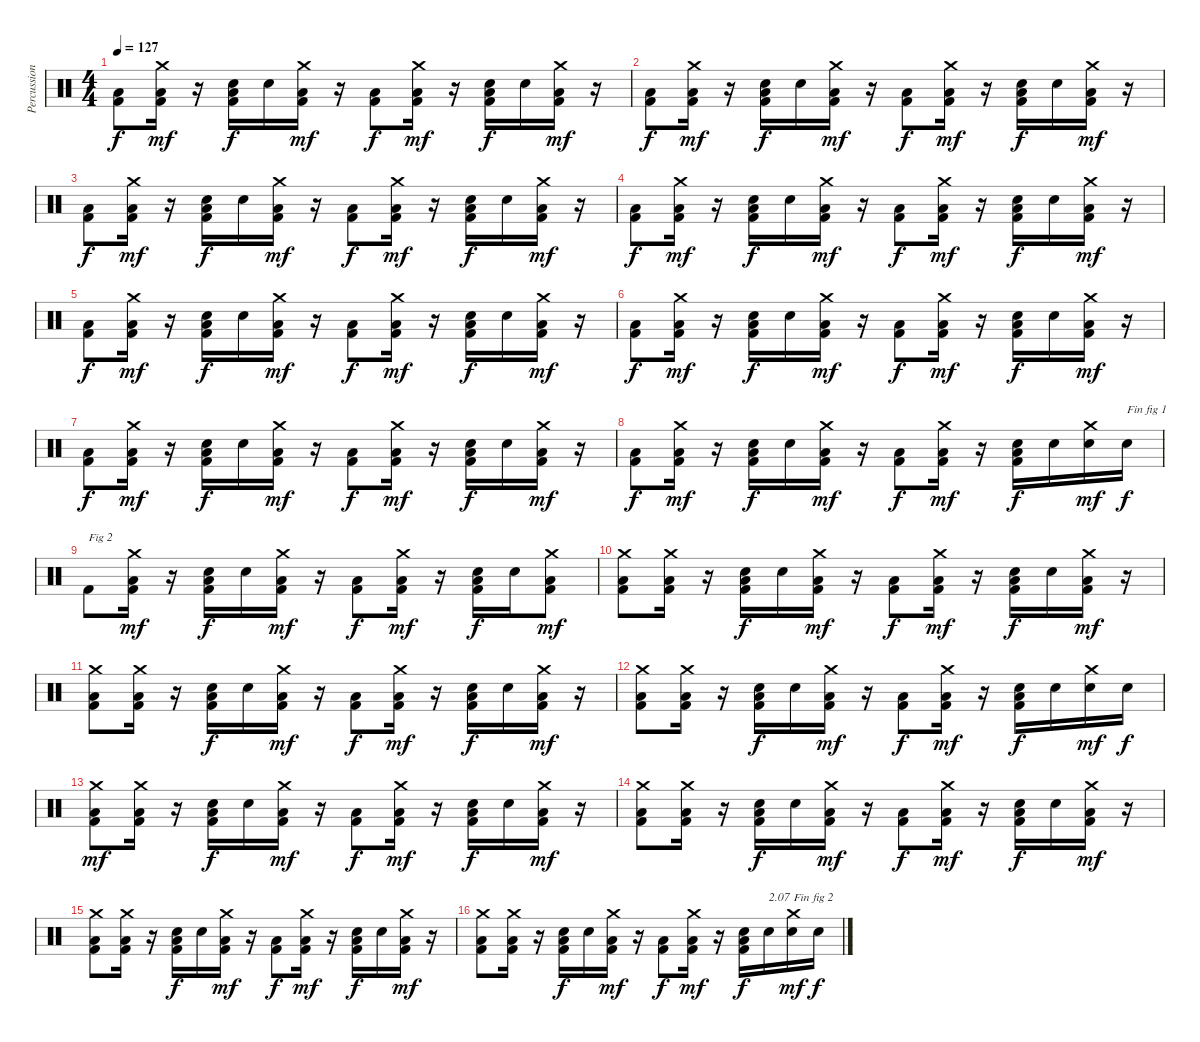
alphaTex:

\track ("Percussions" "Percussion") {instrument percussion}
\staff {score}
\articulation defaults
\ts (4 4)
\tempo 127
\clef neutral
\ks c
("Low Floor Tom (hit)" "Kick (hit) 2").8{dy f} ("Low Floor Tom (hit)" "Kick (hit) 2" "Crash medium (hit)").16{dy mf} r.16 ("Low Floor Tom (hit)" "Kick (hit) 2" "Electric Snare (hit)").16{dy f} "Electric Snare (hit)".16 ("Low Floor Tom (hit)" "Kick (hit) 2" "Crash medium (hit)").16{dy mf} r.16 ("Low Floor Tom (hit)" "Kick (hit) 2").8{dy f} ("Low Floor Tom (hit)" "Kick (hit) 2" "Crash medium (hit)").16{dy mf} r.16 ("Low Floor Tom (hit)" "Kick (hit) 2" "Electric Snare (hit)").16{dy f} "Electric Snare (hit)".16 ("Low Floor Tom (hit)" "Kick (hit) 2" "Crash medium (hit)").16{dy mf} r.16 |
("Low Floor Tom (hit)" "Kick (hit) 2").8{dy f} ("Low Floor Tom (hit)" "Kick (hit) 2" "Crash medium (hit)").16{dy mf} r.16 ("Low Floor Tom (hit)" "Kick (hit) 2" "Electric Snare (hit)").16{dy f} "Electric Snare (hit)".16 ("Low Floor Tom (hit)" "Kick (hit) 2" "Crash medium (hit)").16{dy mf} r.16 ("Low Floor Tom (hit)" "Kick (hit) 2").8{dy f} ("Low Floor Tom (hit)" "Kick (hit) 2" "Crash medium (hit)").16{dy mf} r.16 ("Low Floor Tom (hit)" "Kick (hit) 2" "Electric Snare (hit)").16{dy f} "Electric Snare (hit)".16 ("Low Floor Tom (hit)" "Kick (hit) 2" "Crash medium (hit)").16{dy mf} r.16 |
("Low Floor Tom (hit)" "Kick (hit) 2").8{dy f} ("Low Floor Tom (hit)" "Kick (hit) 2" "Crash medium (hit)").16{dy mf} r.16 ("Low Floor Tom (hit)" "Kick (hit) 2" "Electric Snare (hit)").16{dy f} "Electric Snare (hit)".16 ("Low Floor Tom (hit)" "Kick (hit) 2" "Crash medium (hit)").16{dy mf} r.16 ("Low Floor Tom (hit)" "Kick (hit) 2").8{dy f} ("Low Floor Tom (hit)" "Kick (hit) 2" "Crash medium (hit)").16{dy mf} r.16 ("Low Floor Tom (hit)" "Kick (hit) 2" "Electric Snare (hit)").16{dy f} "Electric Snare (hit)".16 ("Low Floor Tom (hit)" "Kick (hit) 2" "Crash medium (hit)").16{dy mf} r.16 |
("Low Floor Tom (hit)" "Kick (hit) 2").8{dy f} ("Low Floor Tom (hit)" "Kick (hit) 2" "Crash medium (hit)").16{dy mf} r.16 ("Low Floor Tom (hit)" "Kick (hit) 2" "Electric Snare (hit)").16{dy f} "Electric Snare (hit)".16 ("Low Floor Tom (hit)" "Kick (hit) 2" "Crash medium (hit)").16{dy mf} r.16 ("Low Floor Tom (hit)" "Kick (hit) 2").8{dy f} ("Low Floor Tom (hit)" "Kick (hit) 2" "Crash medium (hit)").16{dy mf} r.16 ("Low Floor Tom (hit)" "Kick (hit) 2" "Electric Snare (hit)").16{dy f} "Electric Snare (hit)".16 ("Low Floor Tom (hit)" "Kick (hit) 2" "Crash medium (hit)").16{dy mf} r.16 |
("Low Floor Tom (hit)" "Kick (hit) 2").8{dy f} ("Low Floor Tom (hit)" "Kick (hit) 2" "Crash medium (hit)").16{dy mf} r.16 ("Low Floor Tom (hit)" "Kick (hit) 2" "Electric Snare (hit)").16{dy f} "Electric Snare (hit)".16 ("Low Floor Tom (hit)" "Kick (hit) 2" "Crash medium (hit)").16{dy mf} r.16 ("Low Floor Tom (hit)" "Kick (hit) 2").8{dy f} ("Low Floor Tom (hit)" "Kick (hit) 2" "Crash medium (hit)").16{dy mf} r.16 ("Low Floor Tom (hit)" "Kick (hit) 2" "Electric Snare (hit)").16{dy f} "Electric Snare (hit)".16 ("Low Floor Tom (hit)" "Kick (hit) 2" "Crash medium (hit)").16{dy mf} r.16 |
("Low Floor Tom (hit)" "Kick (hit) 2").8{dy f} ("Low Floor Tom (hit)" "Kick (hit) 2" "Crash medium (hit)").16{dy mf} r.16 ("Low Floor Tom (hit)" "Kick (hit) 2" "Electric Snare (hit)").16{dy f} "Electric Snare (hit)".16 ("Low Floor Tom (hit)" "Kick (hit) 2" "Crash medium (hit)").16{dy mf} r.16 ("Low Floor Tom (hit)" "Kick (hit) 2").8{dy f} ("Low Floor Tom (hit)" "Kick (hit) 2" "Crash medium (hit)").16{dy mf} r.16 ("Low Floor Tom (hit)" "Kick (hit) 2" "Electric Snare (hit)").16{dy f} "Electric Snare (hit)".16 ("Low Floor Tom (hit)" "Kick (hit) 2" "Crash medium (hit)").16{dy mf} r.16 |
("Low Floor Tom (hit)" "Kick (hit) 2").8{dy f} ("Low Floor Tom (hit)" "Kick (hit) 2" "Crash medium (hit)").16{dy mf} r.16 ("Low Floor Tom (hit)" "Kick (hit) 2" "Electric Snare (hit)").16{dy f} "Electric Snare (hit)".16 ("Low Floor Tom (hit)" "Kick (hit) 2" "Crash medium (hit)").16{dy mf} r.16 ("Low Floor Tom (hit)" "Kick (hit) 2").8{dy f} ("Low Floor Tom (hit)" "Kick (hit) 2" "Crash medium (hit)").16{dy mf} r.16 ("Low Floor Tom (hit)" "Kick (hit) 2" "Electric Snare (hit)").16{dy f} "Electric Snare (hit)".16 ("Low Floor Tom (hit)" "Kick (hit) 2" "Crash medium (hit)").16{dy mf} r.16 |
("Low Floor Tom (hit)" "Kick (hit) 2").8{dy f} ("Low Floor Tom (hit)" "Kick (hit) 2" "Crash medium (hit)").16{dy mf} r.16 ("Low Floor Tom (hit)" "Kick (hit) 2" "Electric Snare (hit)").16{dy f} "Electric Snare (hit)".16 ("Low Floor Tom (hit)" "Kick (hit) 2" "Crash medium (hit)").16{dy mf} r.16 ("Low Floor Tom (hit)" "Kick (hit) 2").8{dy f} ("Low Floor Tom (hit)" "Kick (hit) 2" "Crash medium (hit)").16{dy mf} r.16 ("Low Floor Tom (hit)" "Kick (hit) 2" "Electric Snare (hit)").16{dy f} "Electric Snare (hit)".16 ("Electric Snare (hit)" "Crash medium (hit)").16{dy mf} "Electric Snare (hit)".16{txt "Fin fig 1" dy f} |
"Kick (hit) 2".8{txt "Fig 2"} ("Low Floor Tom (hit)" "Kick (hit) 2" "Crash medium (hit)").16{dy mf} r.16 ("Low Floor Tom (hit)" "Kick (hit) 2" "Electric Snare (hit)").16{dy f} "Electric Snare (hit)".16 ("Low Floor Tom (hit)" "Kick (hit) 2" "Crash medium (hit)").16{dy mf} r.16 ("Low Floor Tom (hit)" "Kick (hit) 2").8{dy f} ("Low Floor Tom (hit)" "Kick (hit) 2" "Crash medium (hit)").16{dy mf} r.16 ("Low Floor Tom (hit)" "Kick (hit) 2" "Electric Snare (hit)").16{dy f} "Electric Snare (hit)".16 ("Low Floor Tom (hit)" "Kick (hit) 2" "Crash medium (hit)").8{dy mf} |
("Low Floor Tom (hit)" "Kick (hit) 2" "Crash medium (hit)").8 ("Low Floor Tom (hit)" "Kick (hit) 2" "Crash medium (hit)").16 r.16 ("Low Floor Tom (hit)" "Kick (hit) 2" "Electric Snare (hit)").16{dy f} "Electric Snare (hit)".16 ("Low Floor Tom (hit)" "Kick (hit) 2" "Crash medium (hit)").16{dy mf} r.16 ("Low Floor Tom (hit)" "Kick (hit) 2").8{dy f} ("Low Floor Tom (hit)" "Kick (hit) 2" "Crash medium (hit)").16{dy mf} r.16 ("Low Floor Tom (hit)" "Kick (hit) 2" "Electric Snare (hit)").16{dy f} "Electric Snare (hit)".16 ("Low Floor Tom (hit)" "Kick (hit) 2" "Crash medium (hit)").16{dy mf} r.16 |
("Low Floor Tom (hit)" "Kick (hit) 2" "Crash medium (hit)").8 ("Low Floor Tom (hit)" "Kick (hit) 2" "Crash medium (hit)").16 r.16 ("Low Floor Tom (hit)" "Kick (hit) 2" "Electric Snare (hit)").16{dy f} "Electric Snare (hit)".16 ("Low Floor Tom (hit)" "Kick (hit) 2" "Crash medium (hit)").16{dy mf} r.16 ("Low Floor Tom (hit)" "Kick (hit) 2").8{dy f} ("Low Floor Tom (hit)" "Kick (hit) 2" "Crash medium (hit)").16{dy mf} r.16 ("Low Floor Tom (hit)" "Kick (hit) 2" "Electric Snare (hit)").16{dy f} "Electric Snare (hit)".16 ("Low Floor Tom (hit)" "Kick (hit) 2" "Crash medium (hit)").16{dy mf} r.16 |
("Low Floor Tom (hit)" "Kick (hit) 2" "Crash medium (hit)").8 ("Low Floor Tom (hit)" "Kick (hit) 2" "Crash medium (hit)").16 r.16 ("Low Floor Tom (hit)" "Kick (hit) 2" "Electric Snare (hit)").16{dy f} "Electric Snare (hit)".16 ("Low Floor Tom (hit)" "Kick (hit) 2" "Crash medium (hit)").16{dy mf} r.16 ("Low Floor Tom (hit)" "Kick (hit) 2").8{dy f} ("Low Floor Tom (hit)" "Kick (hit) 2" "Crash medium (hit)").16{dy mf} r.16 ("Low Floor Tom (hit)" "Kick (hit) 2" "Electric Snare (hit)").16{dy f} "Electric Snare (hit)".16 ("Electric Snare (hit)" "Crash medium (hit)").16{dy mf} "Electric Snare (hit)".16{dy f} |
("Low Floor Tom (hit)" "Kick (hit) 2" "Crash medium (hit)").8{dy mf} ("Low Floor Tom (hit)" "Kick (hit) 2" "Crash medium (hit)").16 r.16 ("Low Floor Tom (hit)" "Kick (hit) 2" "Electric Snare (hit)").16{dy f} "Electric Snare (hit)".16 ("Low Floor Tom (hit)" "Kick (hit) 2" "Crash medium (hit)").16{dy mf} r.16 ("Low Floor Tom (hit)" "Kick (hit) 2").8{dy f} ("Low Floor Tom (hit)" "Kick (hit) 2" "Crash medium (hit)").16{dy mf} r.16 ("Low Floor Tom (hit)" "Kick (hit) 2" "Electric Snare (hit)").16{dy f} "Electric Snare (hit)".16 ("Low Floor Tom (hit)" "Kick (hit) 2" "Crash medium (hit)").16{dy mf} r.16 |
("Low Floor Tom (hit)" "Kick (hit) 2" "Crash medium (hit)").8 ("Low Floor Tom (hit)" "Kick (hit) 2" "Crash medium (hit)").16 r.16 ("Low Floor Tom (hit)" "Kick (hit) 2" "Electric Snare (hit)").16{dy f} "Electric Snare (hit)".16 ("Low Floor Tom (hit)" "Kick (hit) 2" "Crash medium (hit)").16{dy mf} r.16 ("Low Floor Tom (hit)" "Kick (hit) 2").8{dy f} ("Low Floor Tom (hit)" "Kick (hit) 2" "Crash medium (hit)").16{dy mf} r.16 ("Low Floor Tom (hit)" "Kick (hit) 2" "Electric Snare (hit)").16{dy f} "Electric Snare (hit)".16 ("Low Floor Tom (hit)" "Kick (hit) 2" "Crash medium (hit)").16{dy mf} r.16 |
("Low Floor Tom (hit)" "Kick (hit) 2" "Crash medium (hit)").8 ("Low Floor Tom (hit)" "Kick (hit) 2" "Crash medium (hit)").16 r.16 ("Low Floor Tom (hit)" "Kick (hit) 2" "Electric Snare (hit)").16{dy f} "Electric Snare (hit)".16 ("Low Floor Tom (hit)" "Kick (hit) 2" "Crash medium (hit)").16{dy mf} r.16 ("Low Floor Tom (hit)" "Kick (hit) 2").8{dy f} ("Low Floor Tom (hit)" "Kick (hit) 2" "Crash medium (hit)").16{dy mf} r.16 ("Low Floor Tom (hit)" "Kick (hit) 2" "Electric Snare (hit)").16{dy f} "Electric Snare (hit)".16 ("Low Floor Tom (hit)" "Kick (hit) 2" "Crash medium (hit)").16{dy mf} r.16 |
("Low Floor Tom (hit)" "Kick (hit) 2" "Crash medium (hit)").8 ("Low Floor Tom (hit)" "Kick (hit) 2" "Crash medium (hit)").16 r.16 ("Low Floor Tom (hit)" "Kick (hit) 2" "Electric Snare (hit)").16{dy f} "Electric Snare (hit)".16 ("Low Floor Tom (hit)" "Kick (hit) 2" "Crash medium (hit)").16{dy mf} r.16 ("Low Floor Tom (hit)" "Kick (hit) 2").8{dy f} ("Low Floor Tom (hit)" "Kick (hit) 2" "Crash medium (hit)").16{dy mf} r.16 ("Low Floor Tom (hit)" "Kick (hit) 2" "Electric Snare (hit)").16{dy f} "Electric Snare (hit)".16{txt "2.07"} ("Electric Snare (hit)" "Crash medium (hit)").16{txt "Fin fig 2" dy mf} "Electric Snare (hit)".16{dy f}
